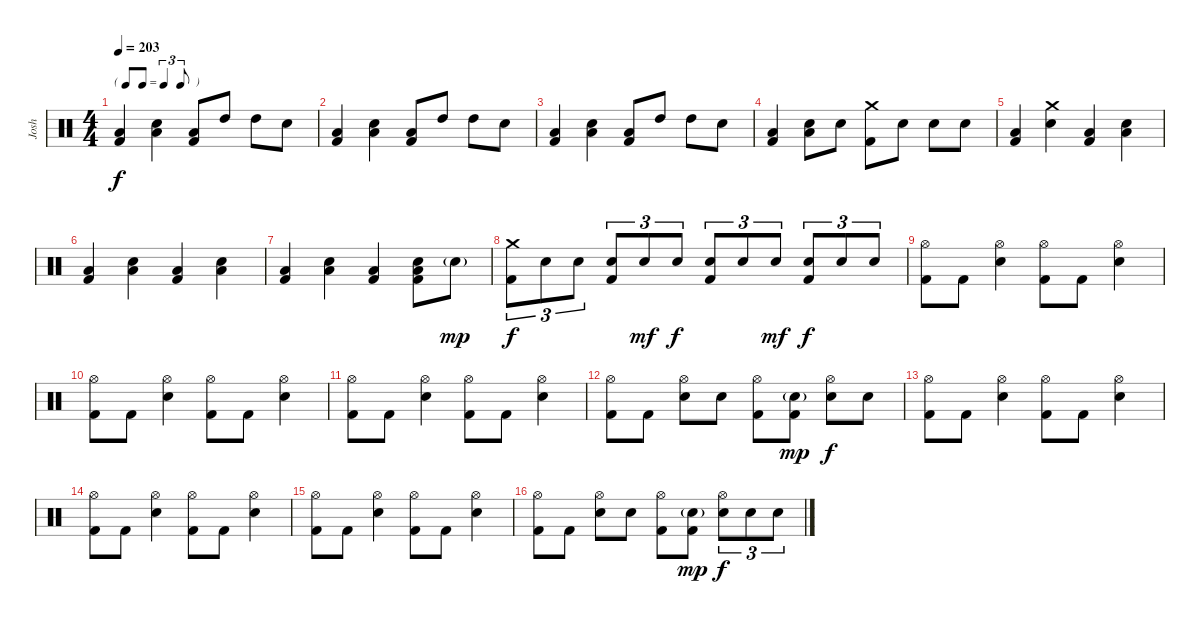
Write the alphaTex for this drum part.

\track ("Josh" "Josh") {instrument percussion}
\staff {score}
\articulation defaults
\ts (4 4)
\tf triplet8th
\tempo 203
\clef neutral
\ks c
("Low Tom (hit)" "Kick (hit) 2").4{dy f} ("Low Tom (hit)" "Electric Snare (hit)").4 ("Low Tom (hit)" "Kick (hit) 2").8 "High Tom (hit)".8 "High Tom (hit)".8 "Electric Snare (hit)".8 |
("Low Tom (hit)" "Kick (hit) 2").4 ("Low Tom (hit)" "Electric Snare (hit)").4 ("Low Tom (hit)" "Kick (hit) 2").8 "High Tom (hit)".8 "High Tom (hit)".8 "Electric Snare (hit)".8 |
("Low Tom (hit)" "Kick (hit) 2").4 ("Low Tom (hit)" "Electric Snare (hit)").4 ("Low Tom (hit)" "Kick (hit) 2").8 "High Tom (hit)".8 "High Tom (hit)".8 "Electric Snare (hit)".8 |
("Low Tom (hit)" "Kick (hit) 2").4 ("Low Tom (hit)" "Electric Snare (hit)").8 "Electric Snare (hit)".8 ("Crash medium (hit)" "Kick (hit) 2").8 "Electric Snare (hit)".8 "Electric Snare (hit)".8 "Electric Snare (hit)".8 |
("Low Tom (hit)" "Kick (hit) 2").4 ("Crash medium (hit)" "Electric Snare (hit)").4 ("Low Tom (hit)" "Kick (hit) 2").4 ("Low Tom (hit)" "Electric Snare (hit)").4 |
("Low Tom (hit)" "Kick (hit) 2").4 ("Low Tom (hit)" "Electric Snare (hit)").4 ("Low Tom (hit)" "Kick (hit) 2").4 ("Low Tom (hit)" "Electric Snare (hit)").4 |
("Low Tom (hit)" "Kick (hit) 2").4 ("Low Tom (hit)" "Electric Snare (hit)").4 ("Low Tom (hit)" "Kick (hit) 2").4 ("Low Tom (hit)" "Electric Snare (hit)" "Kick (hit) 2").8 "Electric Snare (hit)"{g}.8{dy mp} |
("Crash medium (hit)" "Kick (hit) 2").8{tu (3 2) dy f} "Electric Snare (hit)".8{tu (3 2)} "Electric Snare (hit)".8{tu (3 2)} ("Electric Snare (hit)" "Kick (hit) 2").8{tu (3 2)} "Electric Snare (hit)".8{tu (3 2) dy mf} "Electric Snare (hit)".8{tu (3 2) dy f} ("Electric Snare (hit)" "Kick (hit) 2").8{tu (3 2)} "Electric Snare (hit)".8{tu (3 2)} "Electric Snare (hit)".8{tu (3 2) dy mf} ("Electric Snare (hit)" "Kick (hit) 2").8{tu (3 2) dy f} "Electric Snare (hit)".8{tu (3 2)} "Electric Snare (hit)".8{tu (3 2)} |
("Hi-Hat (open)" "Kick (hit) 2").8 "Kick (hit) 2".8 ("Hi-Hat (open)" "Electric Snare (hit)").4 ("Hi-Hat (open)" "Kick (hit) 2").8 "Kick (hit) 2".8 ("Hi-Hat (open)" "Electric Snare (hit)").4 |
("Hi-Hat (open)" "Kick (hit) 2").8 "Kick (hit) 2".8 ("Hi-Hat (open)" "Electric Snare (hit)").4 ("Hi-Hat (open)" "Kick (hit) 2").8 "Kick (hit) 2".8 ("Hi-Hat (open)" "Electric Snare (hit)").4 |
("Hi-Hat (open)" "Kick (hit) 2").8 "Kick (hit) 2".8 ("Hi-Hat (open)" "Electric Snare (hit)").4 ("Hi-Hat (open)" "Kick (hit) 2").8 "Kick (hit) 2".8 ("Hi-Hat (open)" "Electric Snare (hit)").4 |
("Hi-Hat (open)" "Kick (hit) 2").8 "Kick (hit) 2".8 ("Hi-Hat (open)" "Electric Snare (hit)").8 "Electric Snare (hit)".8 ("Hi-Hat (open)" "Kick (hit) 2").8 ("Electric Snare (hit)"{g} "Kick (hit) 2").8{dy mp} ("Hi-Hat (open)" "Electric Snare (hit)").8{dy f} "Electric Snare (hit)".8 |
("Hi-Hat (open)" "Kick (hit) 2").8 "Kick (hit) 2".8 ("Hi-Hat (open)" "Electric Snare (hit)").4 ("Hi-Hat (open)" "Kick (hit) 2").8 "Kick (hit) 2".8 ("Hi-Hat (open)" "Electric Snare (hit)").4 |
("Hi-Hat (open)" "Kick (hit) 2").8 "Kick (hit) 2".8 ("Hi-Hat (open)" "Electric Snare (hit)").4 ("Hi-Hat (open)" "Kick (hit) 2").8 "Kick (hit) 2".8 ("Hi-Hat (open)" "Electric Snare (hit)").4 |
("Hi-Hat (open)" "Kick (hit) 2").8 "Kick (hit) 2".8 ("Hi-Hat (open)" "Electric Snare (hit)").4 ("Hi-Hat (open)" "Kick (hit) 2").8 "Kick (hit) 2".8 ("Hi-Hat (open)" "Electric Snare (hit)").4 |
("Hi-Hat (open)" "Kick (hit) 2").8 "Kick (hit) 2".8 ("Hi-Hat (open)" "Electric Snare (hit)").8 "Electric Snare (hit)".8 ("Hi-Hat (open)" "Kick (hit) 2").8 ("Electric Snare (hit)"{g} "Kick (hit) 2").8{dy mp} ("Hi-Hat (open)" "Electric Snare (hit)").8{tu (3 2) dy f} "Electric Snare (hit)".8{tu (3 2)} "Electric Snare (hit)".8{tu (3 2)}
